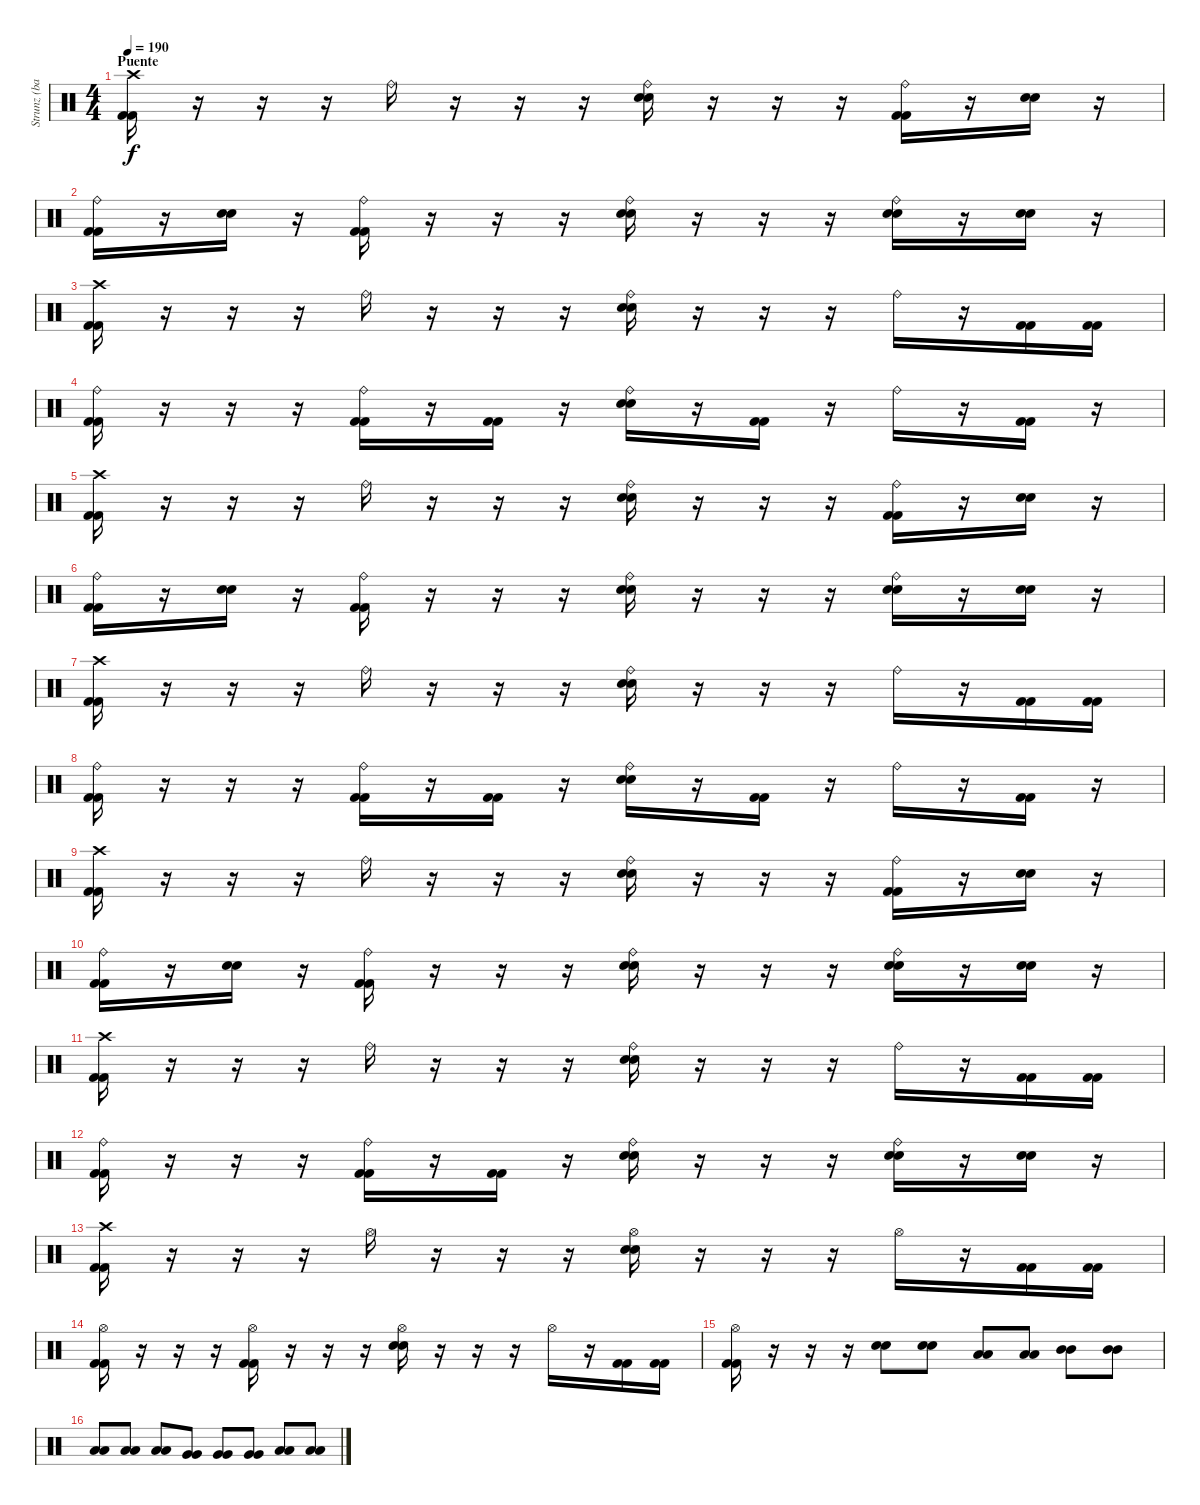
\track ("Strunz (bateria)" "Strunz (ba") {instrument percussion}
\staff {score}
\articulation defaults
\ts (4 4)
\section ("" "Puente")
\tempo 190
\clef neutral
\ks c
("Crash high (hit)" "Kick (hit) 2" "Kick (hit) 2").16{dy f} r.16 r.16 r.16 "Ride (bell)".16 r.16 r.16 r.16 ("Ride (bell)" "Snare (hit) 2" "Snare (hit) 2").16 r.16 r.16 r.16 ("Ride (bell)" "Kick (hit) 2" "Kick (hit) 2").16 r.16 ("Snare (hit) 2" "Snare (hit) 2").16 r.16 |
("Ride (bell)" "Kick (hit) 2" "Kick (hit) 2").16 r.16 ("Snare (hit) 2" "Snare (hit) 2").16 r.16 ("Ride (bell)" "Kick (hit) 2" "Kick (hit) 2").16 r.16 r.16 r.16 ("Ride (bell)" "Snare (hit) 2" "Snare (hit) 2").16 r.16 r.16 r.16 ("Ride (bell)" "Snare (hit) 2" "Snare (hit) 2").16 r.16 ("Snare (hit) 2" "Snare (hit) 2").16 r.16 |
("Crash high (hit)" "Kick (hit) 2" "Kick (hit) 2").16 r.16 r.16 r.16 "Ride (bell)".16 r.16 r.16 r.16 ("Ride (bell)" "Snare (hit) 2" "Snare (hit) 2").16 r.16 r.16 r.16 "Ride (bell)".16 r.16 ("Kick (hit) 2" "Kick (hit) 2").16 ("Kick (hit) 2" "Kick (hit) 2").16 |
("Ride (bell)" "Kick (hit) 2" "Kick (hit) 2").16 r.16 r.16 r.16 ("Ride (bell)" "Kick (hit) 2" "Kick (hit) 2").16 r.16 ("Kick (hit) 2" "Kick (hit) 2").16 r.16 ("Ride (bell)" "Snare (hit) 2" "Snare (hit) 2").16 r.16 ("Kick (hit) 2" "Kick (hit) 2").16 r.16 "Ride (bell)".16 r.16 ("Kick (hit) 2" "Kick (hit) 2").16 r.16 |
("Crash high (hit)" "Kick (hit) 2" "Kick (hit) 2").16 r.16 r.16 r.16 "Ride (bell)".16 r.16 r.16 r.16 ("Ride (bell)" "Snare (hit) 2" "Snare (hit) 2").16 r.16 r.16 r.16 ("Ride (bell)" "Kick (hit) 2" "Kick (hit) 2").16 r.16 ("Snare (hit) 2" "Snare (hit) 2").16 r.16 |
("Ride (bell)" "Kick (hit) 2" "Kick (hit) 2").16 r.16 ("Snare (hit) 2" "Snare (hit) 2").16 r.16 ("Ride (bell)" "Kick (hit) 2" "Kick (hit) 2").16 r.16 r.16 r.16 ("Ride (bell)" "Snare (hit) 2" "Snare (hit) 2").16 r.16 r.16 r.16 ("Ride (bell)" "Snare (hit) 2" "Snare (hit) 2").16 r.16 ("Snare (hit) 2" "Snare (hit) 2").16 r.16 |
("Crash high (hit)" "Kick (hit) 2" "Kick (hit) 2").16 r.16 r.16 r.16 "Ride (bell)".16 r.16 r.16 r.16 ("Ride (bell)" "Snare (hit) 2" "Snare (hit) 2").16 r.16 r.16 r.16 "Ride (bell)".16 r.16 ("Kick (hit) 2" "Kick (hit) 2").16 ("Kick (hit) 2" "Kick (hit) 2").16 |
("Ride (bell)" "Kick (hit) 2" "Kick (hit) 2").16 r.16 r.16 r.16 ("Ride (bell)" "Kick (hit) 2" "Kick (hit) 2").16 r.16 ("Kick (hit) 2" "Kick (hit) 2").16 r.16 ("Ride (bell)" "Snare (hit) 2" "Snare (hit) 2").16 r.16 ("Kick (hit) 2" "Kick (hit) 2").16 r.16 "Ride (bell)".16 r.16 ("Kick (hit) 2" "Kick (hit) 2").16 r.16 |
("Crash high (hit)" "Kick (hit) 2" "Kick (hit) 2").16 r.16 r.16 r.16 "Ride (bell)".16 r.16 r.16 r.16 ("Ride (bell)" "Snare (hit) 2" "Snare (hit) 2").16 r.16 r.16 r.16 ("Ride (bell)" "Kick (hit) 2" "Kick (hit) 2").16 r.16 ("Snare (hit) 2" "Snare (hit) 2").16 r.16 |
("Ride (bell)" "Kick (hit) 2" "Kick (hit) 2").16 r.16 ("Snare (hit) 2" "Snare (hit) 2").16 r.16 ("Ride (bell)" "Kick (hit) 2" "Kick (hit) 2").16 r.16 r.16 r.16 ("Ride (bell)" "Snare (hit) 2" "Snare (hit) 2").16 r.16 r.16 r.16 ("Ride (bell)" "Snare (hit) 2" "Snare (hit) 2").16 r.16 ("Snare (hit) 2" "Snare (hit) 2").16 r.16 |
("Crash high (hit)" "Kick (hit) 2" "Kick (hit) 2").16 r.16 r.16 r.16 "Ride (bell)".16 r.16 r.16 r.16 ("Ride (bell)" "Snare (hit) 2" "Snare (hit) 2").16 r.16 r.16 r.16 "Ride (bell)".16 r.16 ("Kick (hit) 2" "Kick (hit) 2").16 ("Kick (hit) 2" "Kick (hit) 2").16 |
("Ride (bell)" "Kick (hit) 2" "Kick (hit) 2").16 r.16 r.16 r.16 ("Ride (bell)" "Kick (hit) 2" "Kick (hit) 2").16 r.16 ("Kick (hit) 2" "Kick (hit) 2").16 r.16 ("Ride (bell)" "Snare (hit) 2" "Snare (hit) 2").16 r.16 r.16 r.16 ("Ride (bell)" "Snare (hit) 2" "Snare (hit) 2").16 r.16 ("Snare (hit) 2" "Snare (hit) 2").16 r.16 |
("Crash high (hit)" "Kick (hit) 2" "Kick (hit) 2").16 r.16 r.16 r.16 "Hi-Hat (open)".16 r.16 r.16 r.16 ("Hi-Hat (open)" "Snare (hit) 2" "Snare (hit) 2").16 r.16 r.16 r.16 "Hi-Hat (open)".16 r.16 ("Kick (hit) 2" "Kick (hit) 2").16 ("Kick (hit) 2" "Kick (hit) 2").16 |
("Hi-Hat (open)" "Kick (hit) 2" "Kick (hit) 2").16 r.16 r.16 r.16 ("Hi-Hat (open)" "Kick (hit) 2" "Kick (hit) 2").16 r.16 r.16 r.16 ("Hi-Hat (open)" "Snare (hit) 2" "Snare (hit) 2").16 r.16 r.16 r.16 "Hi-Hat (open)".16 r.16 ("Kick (hit) 2" "Kick (hit) 2").16 ("Kick (hit) 2" "Kick (hit) 2").16 |
("Hi-Hat (open)" "Kick (hit) 2" "Kick (hit) 2").16 r.16 r.16 r.16 ("Snare (hit) 2" "Snare (hit) 2").8 ("Snare (hit) 2" "Snare (hit) 2").8 ("Low Tom (hit)" "Low Tom (hit)").8 ("Low Tom (hit)" "Low Tom (hit)").8 ("Mid Tom (hit)" "Mid Tom (hit)").8 ("Mid Tom (hit)" "Mid Tom (hit)").8 |
("Low Tom (hit)" "Low Tom (hit)").8 ("Low Tom (hit)" "Low Tom (hit)").8 ("Low Tom (hit)" "Low Tom (hit)").8 ("Very Low Tom (hit)" "Very Low Tom (hit)").8 ("Very Low Tom (hit)" "Very Low Tom (hit)").8 ("Very Low Tom (hit)" "Very Low Tom (hit)").8 ("Low Floor Tom (hit)" "Low Floor Tom (hit)").8 ("Low Floor Tom (hit)" "Low Floor Tom (hit)").8
